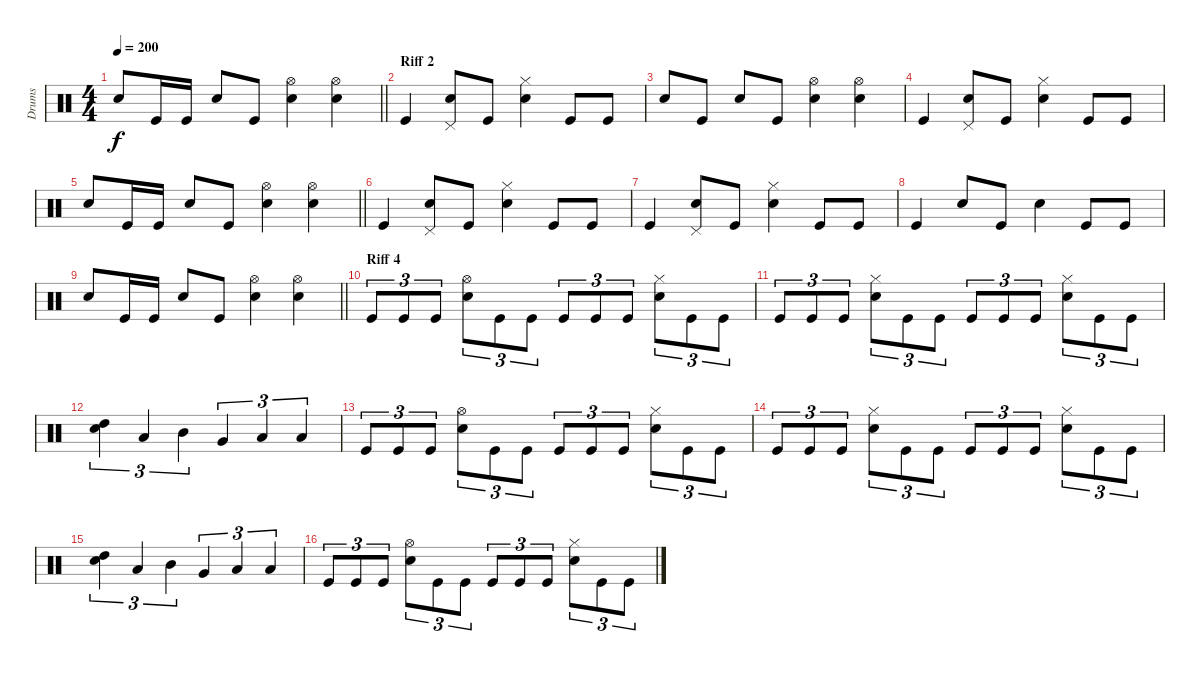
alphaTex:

\track ("Drums" "Drums") {instrument percussion}
\staff {score}
\articulation defaults
\ts (4 4)
\tempo 200
\clef neutral
\barLineRight lightlight
\ks c "Snare (hit) 2".8{dy f} "Kick (hit)".16 "Kick (hit)".16 "Snare (hit) 2".8 "Kick (hit)".8
("Hi-Hat (open)" "Snare (hit) 2").4 ("Hi-Hat (open)" "Snare (hit) 2").4 |
\section ("" "Riff 2")
"Kick (hit)".4 ("Pedal Hi-Hat (hit)" "Snare (hit) 2").8 "Kick (hit)".8 ("Hi-Hat (closed)" "Snare (hit) 2").4 "Kick (hit)".8 "Kick (hit)".8 |
"Snare (hit) 2".8 "Kick (hit)".8 "Snare (hit) 2".8 "Kick (hit)".8 ("Hi-Hat (open)" "Snare (hit) 2").4 ("Hi-Hat (open)" "Snare (hit) 2").4 |
"Kick (hit)".4 ("Pedal Hi-Hat (hit)" "Snare (hit) 2").8 "Kick (hit)".8 ("Hi-Hat (closed)" "Snare (hit) 2").4 "Kick (hit)".8 "Kick (hit)".8 |
\barLineRight lightlight "Snare (hit) 2".8 "Kick (hit)".16 "Kick (hit)".16 "Snare (hit) 2".8 "Kick (hit)".8
("Hi-Hat (open)" "Snare (hit) 2").4 ("Hi-Hat (open)" "Snare (hit) 2").4 |
"Kick (hit)".4 ("Pedal Hi-Hat (hit)" "Snare (hit) 2").8 "Kick (hit)".8 ("Hi-Hat (closed)" "Snare (hit) 2").4 "Kick (hit)".8 "Kick (hit)".8 |
"Kick (hit)".4 ("Pedal Hi-Hat (hit)" "Snare (hit) 2").8 "Kick (hit)".8 ("Hi-Hat (closed)" "Snare (hit) 2").4 "Kick (hit)".8 "Kick (hit)".8 |
"Kick (hit)".4 "Snare (hit) 2".8 "Kick (hit)".8 "Snare (hit) 2".4 "Kick (hit)".8 "Kick (hit)".8 |
\barLineRight lightlight "Snare (hit) 2".8 "Kick (hit)".16 "Kick (hit)".16 "Snare (hit) 2".8 "Kick (hit)".8
("Hi-Hat (open)" "Snare (hit) 2").4 ("Hi-Hat (open)" "Snare (hit) 2").4 |
\section ("" "Riff 4")
"Kick (hit)".8{tu (3 2)} "Kick (hit)".8{tu (3 2)} "Kick (hit)".8{tu (3 2)} ("Hi-Hat (open)" "Snare (hit) 2").8{tu (3 2)} "Kick (hit)".8{tu (3 2)} "Kick (hit)".8{tu (3 2)} "Kick (hit)".8{tu (3 2)} "Kick (hit)".8{tu (3 2)} "Kick (hit)".8{tu (3 2)} ("Hi-Hat (closed)" "Snare (hit) 2").8{tu (3 2)} "Kick (hit)".8{tu (3 2)} "Kick (hit)".8{tu (3 2)} |
"Kick (hit)".8{tu (3 2)} "Kick (hit)".8{tu (3 2)} "Kick (hit)".8{tu (3 2)} ("Hi-Hat (closed)" "Snare (hit) 2").8{tu (3 2)} "Kick (hit)".8{tu (3 2)} "Kick (hit)".8{tu (3 2)} "Kick (hit)".8{tu (3 2)} "Kick (hit)".8{tu (3 2)} "Kick (hit)".8{tu (3 2)} ("Hi-Hat (closed)" "Snare (hit) 2").8{tu (3 2)} "Kick (hit)".8{tu (3 2)} "Kick (hit)".8{tu (3 2)} |
("Snare (hit) 2" "High Tom (hit)").4{tu (3 2)} "Low Tom (hit)".4{tu (3 2)} "Mid Tom (hit)".4{tu (3 2)} "Very Low Tom (hit)".4{tu (3 2)} "Low Tom (hit)".4{tu (3 2)} "Low Floor Tom (hit)".4{tu (3 2)} |
"Kick (hit)".8{tu (3 2)} "Kick (hit)".8{tu (3 2)} "Kick (hit)".8{tu (3 2)} ("Hi-Hat (open)" "Snare (hit) 2").8{tu (3 2)} "Kick (hit)".8{tu (3 2)} "Kick (hit)".8{tu (3 2)} "Kick (hit)".8{tu (3 2)} "Kick (hit)".8{tu (3 2)} "Kick (hit)".8{tu (3 2)} ("Hi-Hat (closed)" "Snare (hit) 2").8{tu (3 2)} "Kick (hit)".8{tu (3 2)} "Kick (hit)".8{tu (3 2)} |
"Kick (hit)".8{tu (3 2)} "Kick (hit)".8{tu (3 2)} "Kick (hit)".8{tu (3 2)} ("Hi-Hat (closed)" "Snare (hit) 2").8{tu (3 2)} "Kick (hit)".8{tu (3 2)} "Kick (hit)".8{tu (3 2)} "Kick (hit)".8{tu (3 2)} "Kick (hit)".8{tu (3 2)} "Kick (hit)".8{tu (3 2)} ("Hi-Hat (closed)" "Snare (hit) 2").8{tu (3 2)} "Kick (hit)".8{tu (3 2)} "Kick (hit)".8{tu (3 2)} |
("Snare (hit) 2" "High Tom (hit)").4{tu (3 2)} "Low Tom (hit)".4{tu (3 2)} "Mid Tom (hit)".4{tu (3 2)} "Very Low Tom (hit)".4{tu (3 2)} "Low Tom (hit)".4{tu (3 2)} "Low Floor Tom (hit)".4{tu (3 2)} |
"Kick (hit)".8{tu (3 2)} "Kick (hit)".8{tu (3 2)} "Kick (hit)".8{tu (3 2)} ("Hi-Hat (open)" "Snare (hit) 2").8{tu (3 2)} "Kick (hit)".8{tu (3 2)} "Kick (hit)".8{tu (3 2)} "Kick (hit)".8{tu (3 2)} "Kick (hit)".8{tu (3 2)} "Kick (hit)".8{tu (3 2)} ("Hi-Hat (closed)" "Snare (hit) 2").8{tu (3 2)} "Kick (hit)".8{tu (3 2)} "Kick (hit)".8{tu (3 2)}
